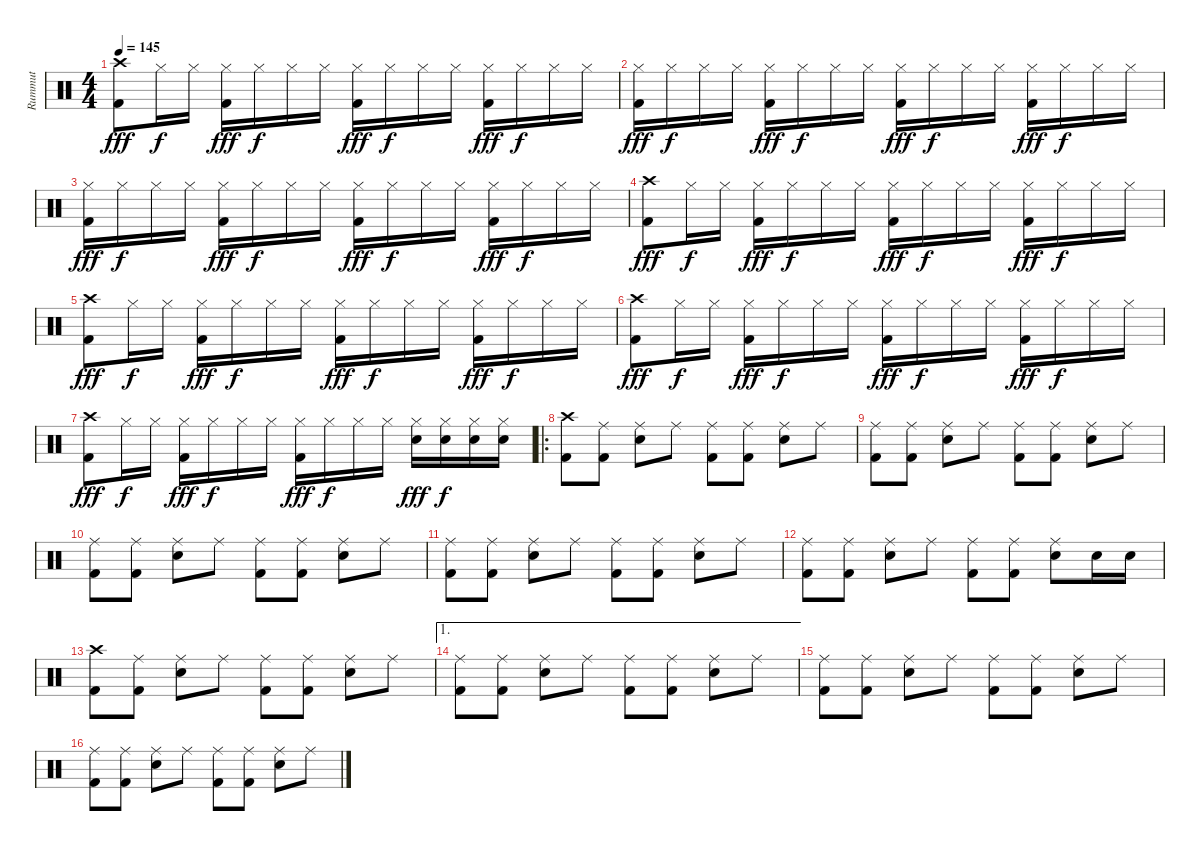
\track ("Rummut" "Rummut") {instrument percussion}
\staff {score}
\articulation defaults
\ts (4 4)
\tempo 145
\clef neutral
\ks c
("Crash high (hit)" "Kick (hit) 2").8{dy fff} "Hi-Hat (closed)".16{dy f} "Hi-Hat (closed)".16 ("Hi-Hat (closed)" "Kick (hit) 2").16{dy fff} "Hi-Hat (closed)".16{dy f} "Hi-Hat (closed)".16 "Hi-Hat (closed)".16 ("Hi-Hat (closed)" "Kick (hit) 2").16{dy fff} "Hi-Hat (closed)".16{dy f} "Hi-Hat (closed)".16 "Hi-Hat (closed)".16 ("Hi-Hat (closed)" "Kick (hit) 2").16{dy fff} "Hi-Hat (closed)".16{dy f} "Hi-Hat (closed)".16 "Hi-Hat (closed)".16 |
("Hi-Hat (closed)" "Kick (hit) 2").16{dy fff} "Hi-Hat (closed)".16{dy f} "Hi-Hat (closed)".16 "Hi-Hat (closed)".16 ("Hi-Hat (closed)" "Kick (hit) 2").16{dy fff} "Hi-Hat (closed)".16{dy f} "Hi-Hat (closed)".16 "Hi-Hat (closed)".16 ("Hi-Hat (closed)" "Kick (hit) 2").16{dy fff} "Hi-Hat (closed)".16{dy f} "Hi-Hat (closed)".16 "Hi-Hat (closed)".16 ("Hi-Hat (closed)" "Kick (hit) 2").16{dy fff} "Hi-Hat (closed)".16{dy f} "Hi-Hat (closed)".16 "Hi-Hat (closed)".16 |
("Hi-Hat (closed)" "Kick (hit) 2").16{dy fff} "Hi-Hat (closed)".16{dy f} "Hi-Hat (closed)".16 "Hi-Hat (closed)".16 ("Hi-Hat (closed)" "Kick (hit) 2").16{dy fff} "Hi-Hat (closed)".16{dy f} "Hi-Hat (closed)".16 "Hi-Hat (closed)".16 ("Hi-Hat (closed)" "Kick (hit) 2").16{dy fff} "Hi-Hat (closed)".16{dy f} "Hi-Hat (closed)".16 "Hi-Hat (closed)".16 ("Hi-Hat (closed)" "Kick (hit) 2").16{dy fff} "Hi-Hat (closed)".16{dy f} "Hi-Hat (closed)".16 "Hi-Hat (closed)".16 |
("Crash high (hit)" "Kick (hit) 2").8{dy fff} "Hi-Hat (closed)".16{dy f} "Hi-Hat (closed)".16 ("Hi-Hat (closed)" "Kick (hit) 2").16{dy fff} "Hi-Hat (closed)".16{dy f} "Hi-Hat (closed)".16 "Hi-Hat (closed)".16 ("Hi-Hat (closed)" "Kick (hit) 2").16{dy fff} "Hi-Hat (closed)".16{dy f} "Hi-Hat (closed)".16 "Hi-Hat (closed)".16 ("Hi-Hat (closed)" "Kick (hit) 2").16{dy fff} "Hi-Hat (closed)".16{dy f} "Hi-Hat (closed)".16 "Hi-Hat (closed)".16 |
("Crash high (hit)" "Kick (hit) 2").8{dy fff} "Hi-Hat (closed)".16{dy f} "Hi-Hat (closed)".16 ("Hi-Hat (closed)" "Kick (hit) 2").16{dy fff} "Hi-Hat (closed)".16{dy f} "Hi-Hat (closed)".16 "Hi-Hat (closed)".16 ("Hi-Hat (closed)" "Kick (hit) 2").16{dy fff} "Hi-Hat (closed)".16{dy f} "Hi-Hat (closed)".16 "Hi-Hat (closed)".16 ("Hi-Hat (closed)" "Kick (hit) 2").16{dy fff} "Hi-Hat (closed)".16{dy f} "Hi-Hat (closed)".16 "Hi-Hat (closed)".16 |
("Crash high (hit)" "Kick (hit) 2").8{dy fff} "Hi-Hat (closed)".16{dy f} "Hi-Hat (closed)".16 ("Hi-Hat (closed)" "Kick (hit) 2").16{dy fff} "Hi-Hat (closed)".16{dy f} "Hi-Hat (closed)".16 "Hi-Hat (closed)".16 ("Hi-Hat (closed)" "Kick (hit) 2").16{dy fff} "Hi-Hat (closed)".16{dy f} "Hi-Hat (closed)".16 "Hi-Hat (closed)".16 ("Hi-Hat (closed)" "Kick (hit) 2").16{dy fff} "Hi-Hat (closed)".16{dy f} "Hi-Hat (closed)".16 "Hi-Hat (closed)".16 |
("Crash high (hit)" "Kick (hit) 2").8{dy fff} "Hi-Hat (closed)".16{dy f} "Hi-Hat (closed)".16 ("Hi-Hat (closed)" "Kick (hit) 2").16{dy fff} "Hi-Hat (closed)".16{dy f} "Hi-Hat (closed)".16 "Hi-Hat (closed)".16 ("Hi-Hat (closed)" "Kick (hit) 2").16{dy fff} "Hi-Hat (closed)".16{dy f} "Hi-Hat (closed)".16 "Hi-Hat (closed)".16 ("Hi-Hat (closed)" "Electric Snare (hit)").16{dy fff} ("Hi-Hat (closed)" "Electric Snare (hit)").16{dy f} ("Hi-Hat (closed)" "Electric Snare (hit)").16 ("Hi-Hat (closed)" "Electric Snare (hit)").16 |
\ro
("Crash high (hit)" "Kick (hit) 2").8 ("Ride (middle)" "Kick (hit) 2").8 ("Ride (middle)" "Electric Snare (hit)").8 "Ride (middle)".8 ("Ride (middle)" "Kick (hit) 2").8 ("Ride (middle)" "Kick (hit) 2").8 ("Ride (middle)" "Electric Snare (hit)").8 "Ride (middle)".8 |
("Ride (middle)" "Kick (hit) 2").8 ("Ride (middle)" "Kick (hit) 2").8 ("Ride (middle)" "Electric Snare (hit)").8 "Ride (middle)".8 ("Ride (middle)" "Kick (hit) 2").8 ("Ride (middle)" "Kick (hit) 2").8 ("Ride (middle)" "Electric Snare (hit)").8 "Ride (middle)".8 |
("Ride (middle)" "Kick (hit) 2").8 ("Ride (middle)" "Kick (hit) 2").8 ("Ride (middle)" "Electric Snare (hit)").8 "Ride (middle)".8 ("Ride (middle)" "Kick (hit) 2").8 ("Ride (middle)" "Kick (hit) 2").8 ("Ride (middle)" "Electric Snare (hit)").8 "Ride (middle)".8 |
("Ride (middle)" "Kick (hit) 2").8 ("Ride (middle)" "Kick (hit) 2").8 ("Ride (middle)" "Electric Snare (hit)").8 "Ride (middle)".8 ("Ride (middle)" "Kick (hit) 2").8 ("Ride (middle)" "Kick (hit) 2").8 ("Ride (middle)" "Electric Snare (hit)").8 "Ride (middle)".8 |
("Ride (middle)" "Kick (hit) 2").8 ("Ride (middle)" "Kick (hit) 2").8 ("Ride (middle)" "Electric Snare (hit)").8 "Ride (middle)".8 ("Ride (middle)" "Kick (hit) 2").8 ("Ride (middle)" "Kick (hit) 2").8 ("Ride (middle)" "Electric Snare (hit)").8 "Electric Snare (hit)".16 "Electric Snare (hit)".16 |
("Crash high (hit)" "Kick (hit) 2").8 ("Ride (middle)" "Kick (hit) 2").8 ("Ride (middle)" "Electric Snare (hit)").8 "Ride (middle)".8 ("Ride (middle)" "Kick (hit) 2").8 ("Ride (middle)" "Kick (hit) 2").8 ("Ride (middle)" "Electric Snare (hit)").8 "Ride (middle)".8 |
\ae 1
("Ride (middle)" "Kick (hit) 2").8 ("Ride (middle)" "Kick (hit) 2").8 ("Ride (middle)" "Electric Snare (hit)").8 "Ride (middle)".8 ("Ride (middle)" "Kick (hit) 2").8 ("Ride (middle)" "Kick (hit) 2").8 ("Ride (middle)" "Electric Snare (hit)").8 "Ride (middle)".8 |
("Ride (middle)" "Kick (hit) 2").8 ("Ride (middle)" "Kick (hit) 2").8 ("Ride (middle)" "Electric Snare (hit)").8 "Ride (middle)".8 ("Ride (middle)" "Kick (hit) 2").8 ("Ride (middle)" "Kick (hit) 2").8 ("Ride (middle)" "Electric Snare (hit)").8 "Ride (middle)".8 |
("Ride (middle)" "Kick (hit) 2").8 ("Ride (middle)" "Kick (hit) 2").8 ("Ride (middle)" "Electric Snare (hit)").8 "Ride (middle)".8 ("Ride (middle)" "Kick (hit) 2").8 ("Ride (middle)" "Kick (hit) 2").8 ("Ride (middle)" "Electric Snare (hit)").8 "Ride (middle)".8
